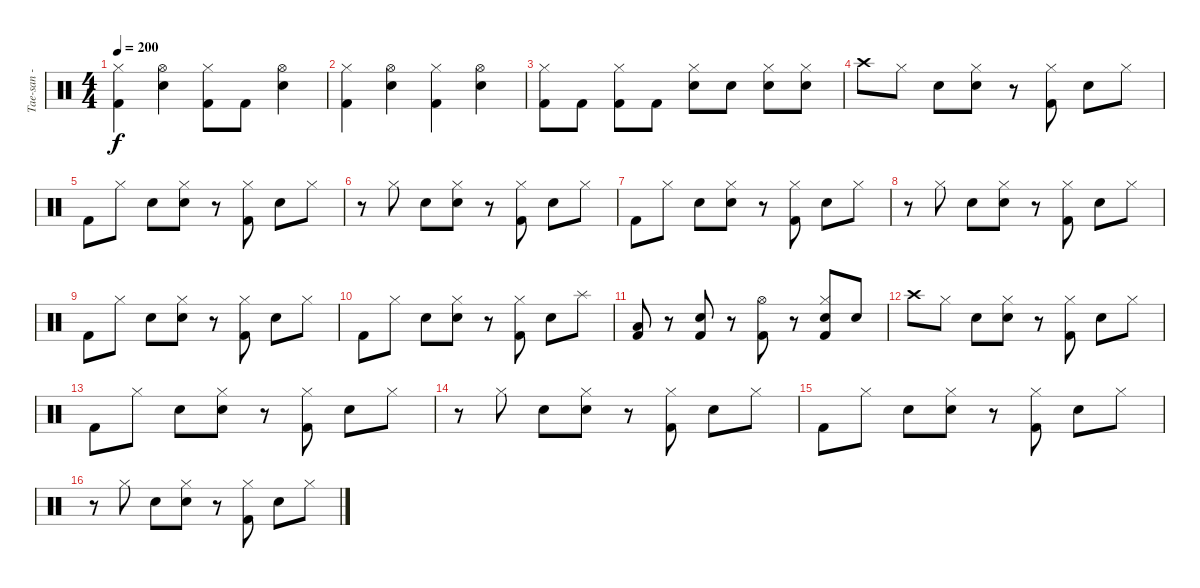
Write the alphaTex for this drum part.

\track ("Tae-san - Drums" "Tae-san - ") {instrument percussion}
\staff {score}
\articulation defaults
\ts (4 4)
\tempo 200
\clef neutral
\ks c
("Kick (hit) 2" "Hi-Hat (closed)").4{dy f} ("Electric Snare (hit)" "Hi-Hat (open)").4 ("Kick (hit) 2" "Hi-Hat (closed)").8 "Kick (hit) 2".8 ("Electric Snare (hit)" "Hi-Hat (open)").4 |
("Kick (hit) 2" "Hi-Hat (closed)").4 ("Electric Snare (hit)" "Hi-Hat (open)").4 ("Kick (hit) 2" "Hi-Hat (closed)").4 ("Electric Snare (hit)" "Hi-Hat (open)").4 |
("Kick (hit) 2" "Hi-Hat (closed)").8 "Kick (hit) 2".8 ("Kick (hit) 2" "Hi-Hat (closed)").8 "Kick (hit) 2".8 ("Electric Snare (hit)" "Hi-Hat (closed)").8 "Electric Snare (hit)".8 ("Electric Snare (hit)" "Hi-Hat (closed)").8 ("Electric Snare (hit)" "Hi-Hat (closed)").8 |
"Crash high (hit)".8 "Hi-Hat (closed)".8 "Electric Snare (hit)".8 ("Electric Snare (hit)" "Hi-Hat (closed)").8 r.8 ("Kick (hit) 2" "Hi-Hat (closed)").8 "Electric Snare (hit)".8 "Hi-Hat (closed)".8 |
"Kick (hit) 2".8 "Hi-Hat (closed)".8 "Electric Snare (hit)".8 ("Electric Snare (hit)" "Hi-Hat (closed)").8 r.8 ("Kick (hit) 2" "Hi-Hat (closed)").8 "Electric Snare (hit)".8 "Hi-Hat (closed)".8 |
r.8 "Hi-Hat (closed)".8 "Electric Snare (hit)".8 ("Electric Snare (hit)" "Hi-Hat (closed)").8 r.8 ("Kick (hit) 2" "Hi-Hat (closed)").8 "Electric Snare (hit)".8 "Hi-Hat (closed)".8 |
"Kick (hit) 2".8 "Hi-Hat (closed)".8 "Electric Snare (hit)".8 ("Electric Snare (hit)" "Hi-Hat (closed)").8 r.8 ("Kick (hit) 2" "Hi-Hat (closed)").8 "Electric Snare (hit)".8 "Hi-Hat (closed)".8 |
r.8 "Hi-Hat (closed)".8 "Electric Snare (hit)".8 ("Electric Snare (hit)" "Hi-Hat (closed)").8 r.8 ("Kick (hit) 2" "Hi-Hat (closed)").8 "Electric Snare (hit)".8 "Hi-Hat (closed)".8 |
"Kick (hit) 2".8 "Hi-Hat (closed)".8 "Electric Snare (hit)".8 ("Electric Snare (hit)" "Hi-Hat (closed)").8 r.8 ("Kick (hit) 2" "Hi-Hat (closed)").8 "Electric Snare (hit)".8 "Hi-Hat (closed)".8 |
"Kick (hit) 2".8 "Hi-Hat (closed)".8 "Electric Snare (hit)".8 ("Electric Snare (hit)" "Hi-Hat (closed)").8 r.8 ("Kick (hit) 2" "Hi-Hat (closed)").8 "Electric Snare (hit)".8 "Splash (hit)".8 |
("Kick (hit) 2" "Low Tom (hit)").8 r.8 ("Kick (hit) 2" "Electric Snare (hit)").8 r.8 ("Kick (hit) 2" "Hi-Hat (open)").8 r.8 ("Kick (hit) 2" "Electric Snare (hit)" "Hi-Hat (closed)").8 "Electric Snare (hit)".8 |
"Crash high (hit)".8 "Hi-Hat (closed)".8 "Electric Snare (hit)".8 ("Electric Snare (hit)" "Hi-Hat (closed)").8 r.8 ("Kick (hit) 2" "Hi-Hat (closed)").8 "Electric Snare (hit)".8 "Hi-Hat (closed)".8 |
"Kick (hit) 2".8 "Hi-Hat (closed)".8 "Electric Snare (hit)".8 ("Electric Snare (hit)" "Hi-Hat (closed)").8 r.8 ("Kick (hit) 2" "Hi-Hat (closed)").8 "Electric Snare (hit)".8 "Hi-Hat (closed)".8 |
r.8 "Hi-Hat (closed)".8 "Electric Snare (hit)".8 ("Electric Snare (hit)" "Hi-Hat (closed)").8 r.8 ("Kick (hit) 2" "Hi-Hat (closed)").8 "Electric Snare (hit)".8 "Hi-Hat (closed)".8 |
"Kick (hit) 2".8 "Hi-Hat (closed)".8 "Electric Snare (hit)".8 ("Electric Snare (hit)" "Hi-Hat (closed)").8 r.8 ("Kick (hit) 2" "Hi-Hat (closed)").8 "Electric Snare (hit)".8 "Hi-Hat (closed)".8 |
r.8 "Hi-Hat (closed)".8 "Electric Snare (hit)".8 ("Electric Snare (hit)" "Hi-Hat (closed)").8 r.8 ("Kick (hit) 2" "Hi-Hat (closed)").8 "Electric Snare (hit)".8 "Hi-Hat (closed)".8
